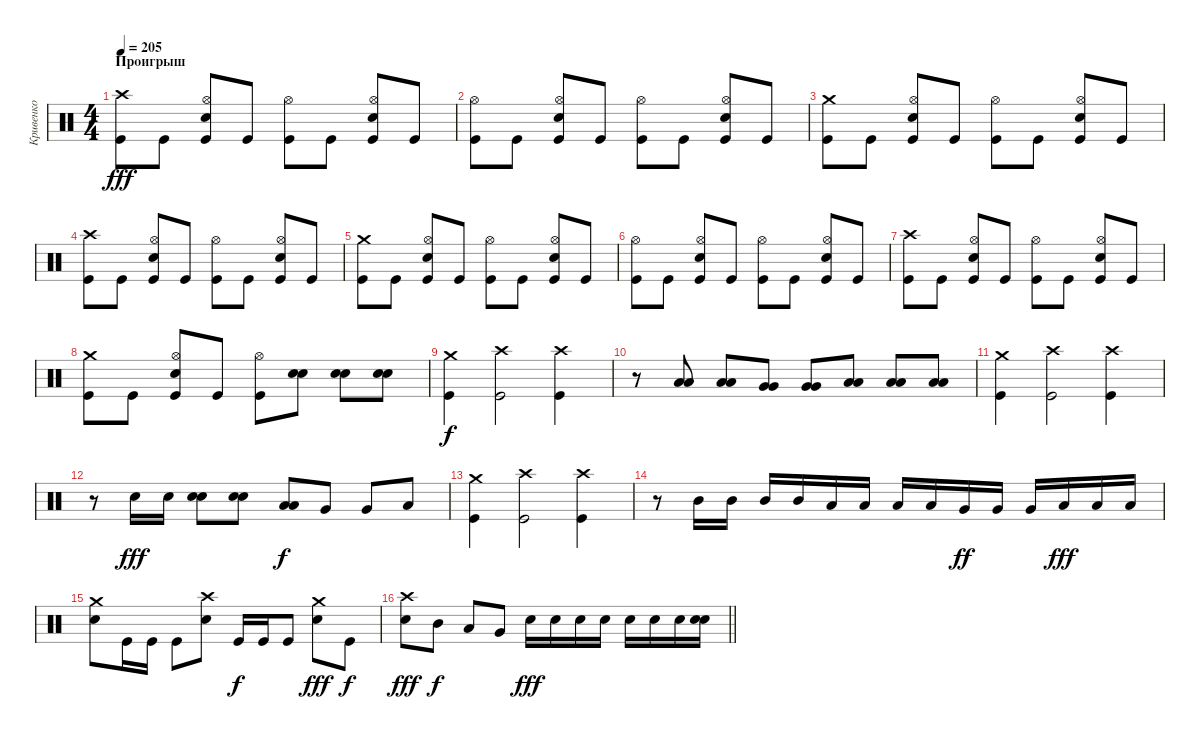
\track ("Кривенко" "Кривенко") {instrument percussion}
\staff {score}
\articulation defaults
\ts (4 4)
\section ("" "Проигрыш")
\tempo 205
\clef neutral
\ks c
("Crash high (hit)" "Kick (hit)").8{dy fff} "Kick (hit)".8 ("Hi-Hat (open)" "Electric Snare (hit)" "Kick (hit)").8 "Kick (hit)".8 ("Hi-Hat (open)" "Kick (hit)").8 "Kick (hit)".8 ("Hi-Hat (open)" "Electric Snare (hit)" "Kick (hit)").8 "Kick (hit)".8 |
("Hi-Hat (open)" "Kick (hit)").8 "Kick (hit)".8 ("Hi-Hat (open)" "Electric Snare (hit)" "Kick (hit)").8 "Kick (hit)".8 ("Hi-Hat (open)" "Kick (hit)").8 "Kick (hit)".8 ("Hi-Hat (open)" "Electric Snare (hit)" "Kick (hit)").8 "Kick (hit)".8 |
("Crash medium (hit)" "Kick (hit)").8 "Kick (hit)".8 ("Hi-Hat (open)" "Electric Snare (hit)" "Kick (hit)").8 "Kick (hit)".8 ("Hi-Hat (open)" "Kick (hit)").8 "Kick (hit)".8 ("Hi-Hat (open)" "Electric Snare (hit)" "Kick (hit)").8 "Kick (hit)".8 |
("Crash high (hit)" "Kick (hit)").8 "Kick (hit)".8 ("Hi-Hat (open)" "Electric Snare (hit)" "Kick (hit)").8 "Kick (hit)".8 ("Hi-Hat (open)" "Kick (hit)").8 "Kick (hit)".8 ("Hi-Hat (open)" "Electric Snare (hit)" "Kick (hit)").8 "Kick (hit)".8 |
("Crash medium (hit)" "Kick (hit)").8 "Kick (hit)".8 ("Hi-Hat (open)" "Electric Snare (hit)" "Kick (hit)").8 "Kick (hit)".8 ("Hi-Hat (open)" "Kick (hit)").8 "Kick (hit)".8 ("Hi-Hat (open)" "Electric Snare (hit)" "Kick (hit)").8 "Kick (hit)".8 |
("Hi-Hat (open)" "Kick (hit)").8 "Kick (hit)".8 ("Hi-Hat (open)" "Electric Snare (hit)" "Kick (hit)").8 "Kick (hit)".8 ("Hi-Hat (open)" "Kick (hit)").8 "Kick (hit)".8 ("Hi-Hat (open)" "Electric Snare (hit)" "Kick (hit)").8 "Kick (hit)".8 |
("Crash high (hit)" "Kick (hit)").8 "Kick (hit)".8 ("Hi-Hat (open)" "Electric Snare (hit)" "Kick (hit)").8 "Kick (hit)".8 ("Hi-Hat (open)" "Kick (hit)").8 "Kick (hit)".8 ("Hi-Hat (open)" "Electric Snare (hit)" "Kick (hit)").8 "Kick (hit)".8 |
("Crash medium (hit)" "Kick (hit)").8 "Kick (hit)".8 ("Hi-Hat (open)" "Electric Snare (hit)" "Kick (hit)").8 "Kick (hit)".8 ("Hi-Hat (open)" "Kick (hit)").8 ("Electric Snare (hit)" "Electric Snare (hit)").8 ("Electric Snare (hit)" "Electric Snare (hit)").8 ("Electric Snare (hit)" "Electric Snare (hit)").8 |
("Crash medium (hit)" "Kick (hit)").4{dy f} ("Crash high (hit)" "Kick (hit)").2 ("Crash high (hit)" "Kick (hit)").4 |
r.8 ("Low Tom (hit)" "Low Tom (hit)").8 ("Low Tom (hit)" "Low Tom (hit)").8 ("Very Low Tom (hit)" "Very Low Tom (hit)").8 ("Very Low Tom (hit)" "Very Low Tom (hit)").8 ("Low Floor Tom (hit)" "Low Floor Tom (hit)").8 ("Low Floor Tom (hit)" "Low Floor Tom (hit)").8 ("Low Floor Tom (hit)" "Low Floor Tom (hit)").8 |
("Crash medium (hit)" "Kick (hit)").4 ("Crash high (hit)" "Kick (hit)").2 ("Crash high (hit)" "Kick (hit)").4 |
r.8 "Electric Snare (hit)".16{dy fff} "Electric Snare (hit)".16 ("Electric Snare (hit)" "Electric Snare (hit)").8 ("Electric Snare (hit)" "Electric Snare (hit)").8 ("Low Floor Tom (hit)" "Low Floor Tom (hit)").8{dy f} "Very Low Tom (hit)".8 "Very Low Tom (hit)".8 "Low Tom (hit)".8 |
("Crash medium (hit)" "Kick (hit)").4 ("Crash high (hit)" "Kick (hit)").2 ("Crash high (hit)" "Kick (hit)").4 |
r.8 "Mid Tom (hit)".16 "Mid Tom (hit)".16 "Mid Tom (hit)".16 "Mid Tom (hit)".16 "Low Tom (hit)".16 "Low Tom (hit)".16 "Low Tom (hit)".16 "Low Tom (hit)".16 "Very Low Tom (hit)".16{dy ff} "Very Low Tom (hit)".16 "Very Low Tom (hit)".16 "Low Floor Tom (hit)".16{dy fff} "Low Floor Tom (hit)".16 "Low Floor Tom (hit)".16 |
("Crash medium (hit)" "Electric Snare (hit)").8 "Kick (hit)".16 "Kick (hit)".16 "Kick (hit)".8 ("Crash high (hit)" "Electric Snare (hit)").8 "Kick (hit)".16{dy f} "Kick (hit)".16 "Kick (hit)".8 ("Crash medium (hit)" "Electric Snare (hit)").8{dy fff} "Kick (hit)".8{dy f} |
\barLineRight lightlight
("Crash high (hit)" "Electric Snare (hit)").8{dy fff} "Mid Tom (hit)".8{dy f} "Low Tom (hit)".8 "Very Low Tom (hit)".8 "Electric Snare (hit)".16{dy fff} "Electric Snare (hit)".16 "Electric Snare (hit)".16 "Electric Snare (hit)".16 "Electric Snare (hit)".16 "Electric Snare (hit)".16 "Electric Snare (hit)".16 ("Electric Snare (hit)" "Electric Snare (hit)").16
